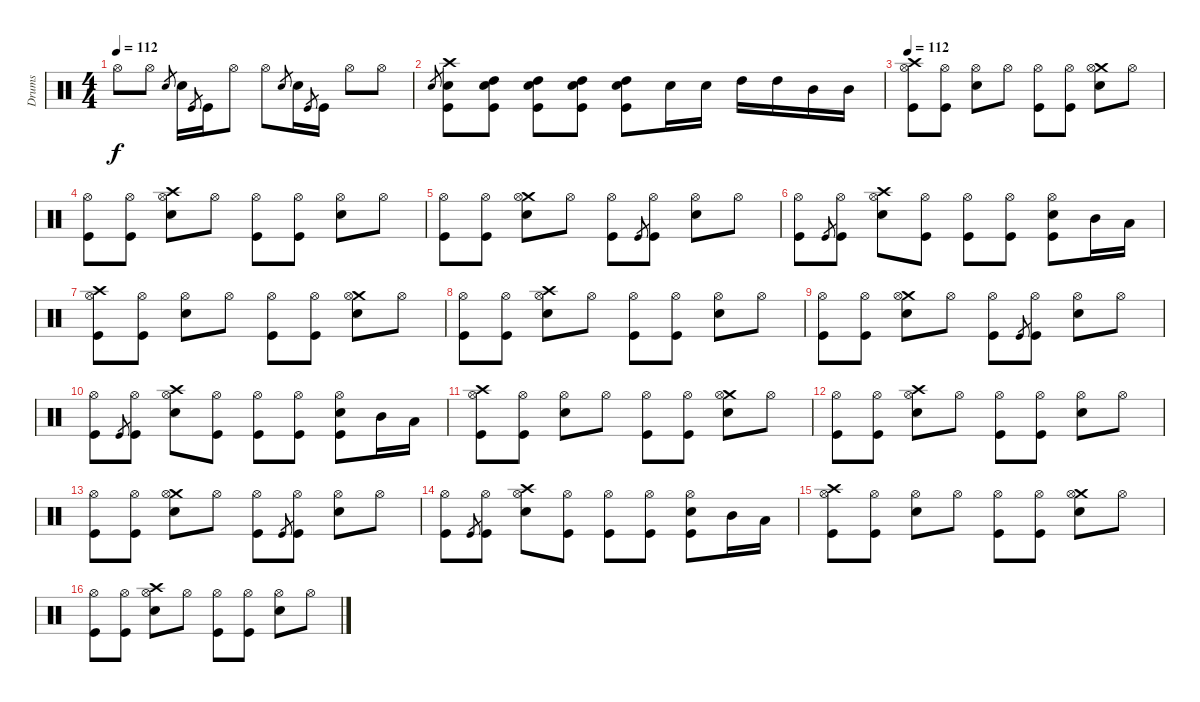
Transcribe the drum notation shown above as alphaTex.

\track ("Drums" "Drums") {instrument percussion}
\staff {score}
\articulation defaults
\ts (4 4)
\tempo 112
\clef neutral
\ks c "Hi-Hat (open)".8{dy f} "Hi-Hat (open)".8 "Snare (hit) 2".8{gr} "Snare (hit) 2".16 "Kick (hit)".8{gr} "Kick (hit)".16 "Hi-Hat (open)".8 "Hi-Hat (open)".8 "Snare (hit) 2".8{gr} "Snare (hit) 2".16 "Kick (hit)".8{gr} "Kick (hit)".16 "Hi-Hat (open)".8 "Hi-Hat (open)".8
|
"Snare (hit) 2"{h}.8{gr} ("Crash high (hit)" "Snare (hit) 2" "Kick (hit)").8 ("Snare (hit) 2" "High Tom (hit)" "Kick (hit)").8 ("Snare (hit) 2" "High Tom (hit)" "Kick (hit)").8 ("Snare (hit) 2" "High Tom (hit)" "Kick (hit)").8 ("Snare (hit) 2" "High Tom (hit)" "Kick (hit)").8 "Snare (hit) 2".16 "Snare (hit) 2".16 "High Tom (hit)".16 "High Tom (hit)".16 "Mid Tom (hit)".16 "Mid Tom (hit)".16 |
\tempo 112
("Crash high (hit)" "Hi-Hat (open)" "Kick (hit)").8{volume 16} ("Hi-Hat (open)" "Kick (hit)").8 ("Hi-Hat (open)" "Snare (hit) 2").8 "Hi-Hat (open)".8 ("Hi-Hat (open)" "Kick (hit)").8 ("Hi-Hat (open)" "Kick (hit)").8 ("Crash medium (hit)" "Hi-Hat (open)" "Snare (hit) 2").8 "Hi-Hat (open)".8 |
("Hi-Hat (open)" "Kick (hit)").8 ("Hi-Hat (open)" "Kick (hit)").8 ("Crash high (hit)" "Hi-Hat (open)" "Snare (hit) 2").8 "Hi-Hat (open)".8 ("Hi-Hat (open)" "Kick (hit)").8 ("Hi-Hat (open)" "Kick (hit)").8 ("Hi-Hat (open)" "Snare (hit) 2").8 "Hi-Hat (open)".8 |
("Hi-Hat (open)" "Kick (hit)").8 ("Hi-Hat (open)" "Kick (hit)").8 ("Crash medium (hit)" "Hi-Hat (open)" "Snare (hit) 2").8 "Hi-Hat (open)".8 ("Hi-Hat (open)" "Kick (hit)").8 "Kick (hit)".8{gr} ("Hi-Hat (open)" "Kick (hit)").8 ("Hi-Hat (open)" "Snare (hit) 2").8 "Hi-Hat (open)".8 |
("Hi-Hat (open)" "Kick (hit)").8 "Kick (hit)".8{gr} ("Hi-Hat (open)" "Kick (hit)").8 ("Crash high (hit)" "Hi-Hat (open)" "Snare (hit) 2").8 ("Hi-Hat (open)" "Kick (hit)").8 ("Hi-Hat (open)" "Kick (hit)").8 ("Hi-Hat (open)" "Kick (hit)").8 ("Hi-Hat (open)" "Snare (hit) 2" "Kick (hit)").8 "Mid Tom (hit)".16 "Low Tom (hit)".16 |
("Crash high (hit)" "Hi-Hat (open)" "Kick (hit)").8 ("Hi-Hat (open)" "Kick (hit)").8 ("Hi-Hat (open)" "Snare (hit) 2").8 "Hi-Hat (open)".8 ("Hi-Hat (open)" "Kick (hit)").8 ("Hi-Hat (open)" "Kick (hit)").8 ("Crash medium (hit)" "Hi-Hat (open)" "Snare (hit) 2").8 "Hi-Hat (open)".8 |
("Hi-Hat (open)" "Kick (hit)").8 ("Hi-Hat (open)" "Kick (hit)").8 ("Crash high (hit)" "Hi-Hat (open)" "Snare (hit) 2").8 "Hi-Hat (open)".8 ("Hi-Hat (open)" "Kick (hit)").8 ("Hi-Hat (open)" "Kick (hit)").8 ("Hi-Hat (open)" "Snare (hit) 2").8 "Hi-Hat (open)".8 |
("Hi-Hat (open)" "Kick (hit)").8 ("Hi-Hat (open)" "Kick (hit)").8 ("Crash medium (hit)" "Hi-Hat (open)" "Snare (hit) 2").8 "Hi-Hat (open)".8 ("Hi-Hat (open)" "Kick (hit)").8 "Kick (hit)".8{gr} ("Hi-Hat (open)" "Kick (hit)").8 ("Hi-Hat (open)" "Snare (hit) 2").8 "Hi-Hat (open)".8 |
("Hi-Hat (open)" "Kick (hit)").8 "Kick (hit)".8{gr} ("Hi-Hat (open)" "Kick (hit)").8 ("Crash high (hit)" "Hi-Hat (open)" "Snare (hit) 2").8 ("Hi-Hat (open)" "Kick (hit)").8 ("Hi-Hat (open)" "Kick (hit)").8 ("Hi-Hat (open)" "Kick (hit)").8 ("Hi-Hat (open)" "Snare (hit) 2" "Kick (hit)").8 "Mid Tom (hit)".16 "Low Tom (hit)".16 |
("Crash high (hit)" "Hi-Hat (open)" "Kick (hit)").8 ("Hi-Hat (open)" "Kick (hit)").8 ("Hi-Hat (open)" "Snare (hit) 2").8 "Hi-Hat (open)".8 ("Hi-Hat (open)" "Kick (hit)").8 ("Hi-Hat (open)" "Kick (hit)").8 ("Crash medium (hit)" "Hi-Hat (open)" "Snare (hit) 2").8 "Hi-Hat (open)".8 |
("Hi-Hat (open)" "Kick (hit)").8 ("Hi-Hat (open)" "Kick (hit)").8 ("Crash high (hit)" "Hi-Hat (open)" "Snare (hit) 2").8 "Hi-Hat (open)".8 ("Hi-Hat (open)" "Kick (hit)").8 ("Hi-Hat (open)" "Kick (hit)").8 ("Hi-Hat (open)" "Snare (hit) 2").8 "Hi-Hat (open)".8 |
("Hi-Hat (open)" "Kick (hit)").8 ("Hi-Hat (open)" "Kick (hit)").8 ("Crash medium (hit)" "Hi-Hat (open)" "Snare (hit) 2").8 "Hi-Hat (open)".8 ("Hi-Hat (open)" "Kick (hit)").8 "Kick (hit)".8{gr} ("Hi-Hat (open)" "Kick (hit)").8 ("Hi-Hat (open)" "Snare (hit) 2").8 "Hi-Hat (open)".8 |
("Hi-Hat (open)" "Kick (hit)").8 "Kick (hit)".8{gr} ("Hi-Hat (open)" "Kick (hit)").8 ("Crash high (hit)" "Hi-Hat (open)" "Snare (hit) 2").8 ("Hi-Hat (open)" "Kick (hit)").8 ("Hi-Hat (open)" "Kick (hit)").8 ("Hi-Hat (open)" "Kick (hit)").8 ("Hi-Hat (open)" "Snare (hit) 2" "Kick (hit)").8 "Mid Tom (hit)".16 "Low Tom (hit)".16 |
("Crash high (hit)" "Hi-Hat (open)" "Kick (hit)").8 ("Hi-Hat (open)" "Kick (hit)").8 ("Hi-Hat (open)" "Snare (hit) 2").8 "Hi-Hat (open)".8 ("Hi-Hat (open)" "Kick (hit)").8 ("Hi-Hat (open)" "Kick (hit)").8 ("Crash medium (hit)" "Hi-Hat (open)" "Snare (hit) 2").8 "Hi-Hat (open)".8 |
("Hi-Hat (open)" "Kick (hit)").8 ("Hi-Hat (open)" "Kick (hit)").8 ("Crash high (hit)" "Hi-Hat (open)" "Snare (hit) 2").8 "Hi-Hat (open)".8 ("Hi-Hat (open)" "Kick (hit)").8 ("Hi-Hat (open)" "Kick (hit)").8 ("Hi-Hat (open)" "Snare (hit) 2").8 "Hi-Hat (open)".8
